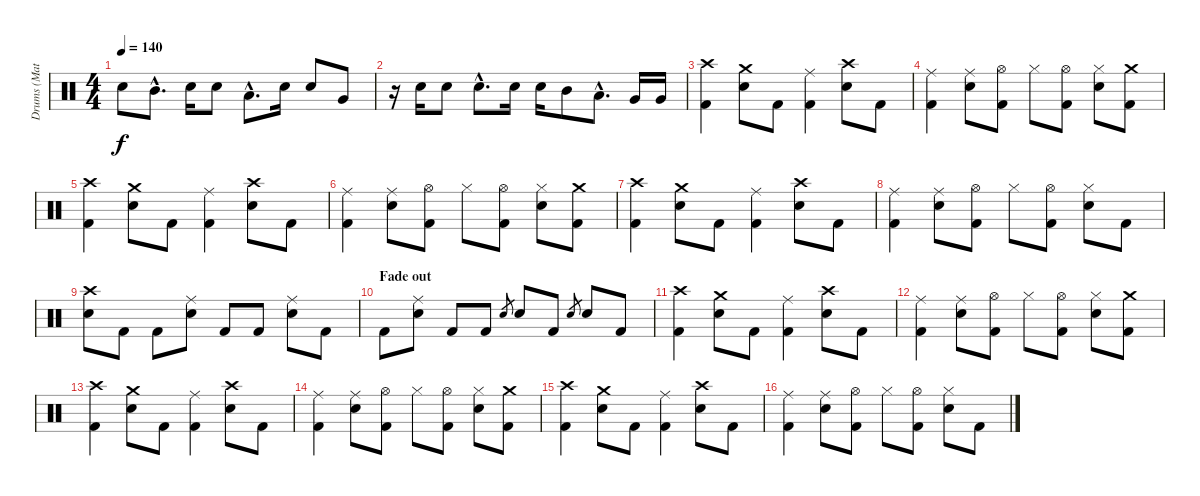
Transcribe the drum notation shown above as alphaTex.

\track ("Drums (Matt)" "Drums (Mat") {instrument percussion}
\staff {score}
\articulation defaults
\ts (4 4)
\tempo 140
\clef neutral
\ks c "Snare (hit) 2".8{dy f} "Mid Tom (hit)"{hac}.8{d} "Snare (hit) 2".16 "Snare (hit) 2".8 "Low Tom (hit)"{hac}.8{d} "Snare (hit) 2".16 "Snare (hit) 2".8 "Very Low Tom (hit)".8
|
r.16 "Snare (hit) 2".16 "Snare (hit) 2".8 "Snare (hit) 2"{hac}.8{d} "Snare (hit) 2".16 "Snare (hit) 2".16 "Mid Tom (hit)".8 "Low Tom (hit)"{hac}.8{d} "Very Low Tom (hit)".16 "Very Low Tom (hit)".16 |
("Crash high (hit)" "Kick (hit) 2").4 ("Crash medium (hit)" "Snare (hit) 2").8 "Kick (hit) 2".8 ("Ride (middle)" "Kick (hit) 2").4 ("Crash high (hit)" "Snare (hit) 2").8 "Kick (hit) 2".8 |
("Ride (middle)" "Kick (hit) 2").4 ("Ride (middle)" "Snare (hit) 2").8 ("Hi-Hat (open)" "Kick (hit) 2").8 "Hi-Hat (closed)".8 ("Hi-Hat (open)" "Kick (hit) 2").8 ("Hi-Hat (closed)" "Snare (hit) 2").8 ("Crash medium (hit)" "Kick (hit) 2").8 |
("Crash high (hit)" "Kick (hit) 2").4 ("Crash medium (hit)" "Snare (hit) 2").8 "Kick (hit) 2".8 ("Ride (middle)" "Kick (hit) 2").4 ("Crash high (hit)" "Snare (hit) 2").8 "Kick (hit) 2".8 |
("Ride (middle)" "Kick (hit) 2").4 ("Ride (middle)" "Snare (hit) 2").8 ("Hi-Hat (open)" "Kick (hit) 2").8 "Hi-Hat (closed)".8 ("Hi-Hat (open)" "Kick (hit) 2").8 ("Hi-Hat (closed)" "Snare (hit) 2").8 ("Crash medium (hit)" "Kick (hit) 2").8 |
("Crash high (hit)" "Kick (hit) 2").4 ("Crash medium (hit)" "Snare (hit) 2").8 "Kick (hit) 2".8 ("Ride (middle)" "Kick (hit) 2").4 ("Crash high (hit)" "Snare (hit) 2").8 "Kick (hit) 2".8 |
("Ride (middle)" "Kick (hit) 2").4 ("Ride (middle)" "Snare (hit) 2").8 ("Hi-Hat (open)" "Kick (hit) 2").8 "Hi-Hat (closed)".8 ("Hi-Hat (open)" "Kick (hit) 2").8 ("Hi-Hat (closed)" "Snare (hit) 2").8 "Kick (hit) 2".8 |
("Crash high (hit)" "Snare (hit) 2").8 "Kick (hit) 2".8 "Kick (hit) 2".8 ("Ride (middle)" "Snare (hit) 2").8 "Kick (hit) 2".8 "Kick (hit) 2".8 ("Ride (middle)" "Snare (hit) 2").8 "Kick (hit) 2".8 |
\section ("" "Fade out")
"Kick (hit) 2".8{volume 10} ("Ride (middle)" "Snare (hit) 2").8 "Kick (hit) 2".8 "Kick (hit) 2".8 "Snare (hit) 2".8{gr} "Snare (hit) 2".8 "Kick (hit) 2".8 "Snare (hit) 2".8{gr} "Snare (hit) 2".8 "Kick (hit) 2".8 |
("Crash high (hit)" "Kick (hit) 2").4 ("Crash medium (hit)" "Snare (hit) 2").8 "Kick (hit) 2".8 ("Ride (middle)" "Kick (hit) 2").4 ("Crash high (hit)" "Snare (hit) 2").8 "Kick (hit) 2".8 |
("Ride (middle)" "Kick (hit) 2").4{volume 8} ("Ride (middle)" "Snare (hit) 2").8 ("Hi-Hat (open)" "Kick (hit) 2").8 "Hi-Hat (closed)".8 ("Hi-Hat (open)" "Kick (hit) 2").8 ("Hi-Hat (closed)" "Snare (hit) 2").8 ("Crash medium (hit)" "Kick (hit) 2").8 |
("Crash high (hit)" "Kick (hit) 2").4 ("Crash medium (hit)" "Snare (hit) 2").8 "Kick (hit) 2".8 ("Ride (middle)" "Kick (hit) 2").4 ("Crash high (hit)" "Snare (hit) 2").8 "Kick (hit) 2".8 |
("Ride (middle)" "Kick (hit) 2").4{volume 5} ("Ride (middle)" "Snare (hit) 2").8 ("Hi-Hat (open)" "Kick (hit) 2").8 "Hi-Hat (closed)".8 ("Hi-Hat (open)" "Kick (hit) 2").8 ("Hi-Hat (closed)" "Snare (hit) 2").8 ("Crash medium (hit)" "Kick (hit) 2").8 |
("Crash high (hit)" "Kick (hit) 2").4 ("Crash medium (hit)" "Snare (hit) 2").8 "Kick (hit) 2".8 ("Ride (middle)" "Kick (hit) 2").4 ("Crash high (hit)" "Snare (hit) 2").8 "Kick (hit) 2".8 |
("Ride (middle)" "Kick (hit) 2").4{volume 3} ("Ride (middle)" "Snare (hit) 2").8 ("Hi-Hat (open)" "Kick (hit) 2").8 "Hi-Hat (closed)".8 ("Hi-Hat (open)" "Kick (hit) 2").8 ("Hi-Hat (closed)" "Snare (hit) 2").8 "Kick (hit) 2".8
